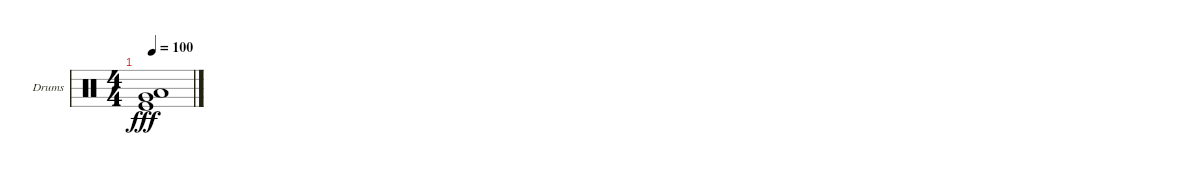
\bracketExtendMode groupsimilarinstruments
\firstSystemTrackNameOrientation horizontal
\otherSystemsTrackNameOrientation horizontal
\track ("Drumkit" "Drums") {instrument percussion}
\staff {score}
\articulation defaults
\ts (4 4)
\tempo 100
\clef neutral
\ks c
("Kick (hit)" "Very Low Tom (hit)" "Low Tom (hit)").1{dy fff}
